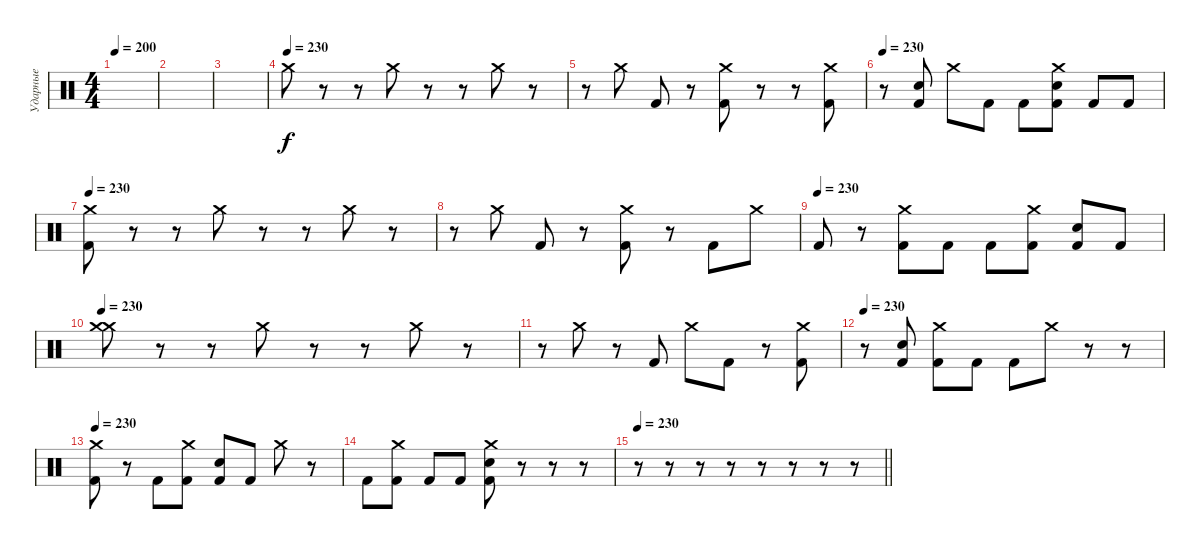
\track ("Ударные" "Ударные") {instrument percussion}
\staff {score}
\articulation defaults
\ts (4 4)
\tempo 200
\clef neutral
\ks c
|
|
|
\tempo (230)
"Crash medium (hit)".8 r.8 r.8 "Crash medium (hit)".8 r.8 r.8 "Crash medium (hit)".8 r.8 |
r.8 "Crash medium (hit)".8 "Kick (hit) 2".8 r.8 ("Crash medium (hit)" "Kick (hit) 2").8 r.8 r.8 ("Crash medium (hit)" "Kick (hit) 2").8 |
\tempo 230
r.8 ("Snare (hit) 2" "Kick (hit) 2").8 "Crash medium (hit)".8 "Kick (hit) 2".8 "Kick (hit) 2".8 ("Snare (hit) 2" "Crash medium (hit)" "Kick (hit) 2").8 "Kick (hit) 2".8 "Kick (hit) 2".8 |
\tempo 230
("Crash medium (hit)" "Kick (hit) 2").8 r.8 r.8 "Crash medium (hit)".8 r.8 r.8 "Crash medium (hit)".8 r.8 |
r.8 "Crash medium (hit)".8 "Kick (hit) 2".8 r.8 ("Crash medium (hit)" "Kick (hit) 2").8 r.8 "Kick (hit) 2".8 "Crash medium (hit)".8 |
\tempo (230)
"Kick (hit) 2".8 r.8 ("Crash medium (hit)" "Kick (hit) 2").8 "Kick (hit) 2".8 "Kick (hit) 2".8 ("Crash medium (hit)" "Kick (hit) 2").8 ("Snare (hit) 2" "Kick (hit) 2").8 "Kick (hit) 2".8 |
\tempo 230
("Crash medium (hit)" "Crash medium (hit)").8 r.8 r.8 "Crash medium (hit)".8 r.8 r.8 "Crash medium (hit)".8 r.8 |
r.8 "Crash medium (hit)".8 r.8 "Kick (hit) 2".8 "Crash medium (hit)".8 "Kick (hit) 2".8 r.8 ("Crash medium (hit)" "Kick (hit) 2").8 |
\tempo 230
r.8 ("Kick (hit) 2" "Snare (hit) 2").8 ("Crash medium (hit)" "Kick (hit) 2").8 "Kick (hit) 2".8 "Kick (hit) 2".8 "Crash medium (hit)".8 r.8 r.8 |
\tempo 230
("Crash medium (hit)" "Kick (hit) 2").8 r.8 "Kick (hit) 2".8 ("Crash medium (hit)" "Kick (hit) 2").8 ("Snare (hit) 2" "Kick (hit) 2").8 "Kick (hit) 2".8 "Crash medium (hit)".8 r.8 |
"Kick (hit) 2".8 ("Crash medium (hit)" "Kick (hit) 2").8 "Kick (hit) 2".8 "Kick (hit) 2".8 ("Kick (hit) 2" "Snare (hit) 2" "Crash medium (hit)").8 r.8 r.8 r.8 |
\tempo 230
\barLineRight lightlight
r.8 r.8 r.8 r.8 r.8 r.8 r.8 r.8
